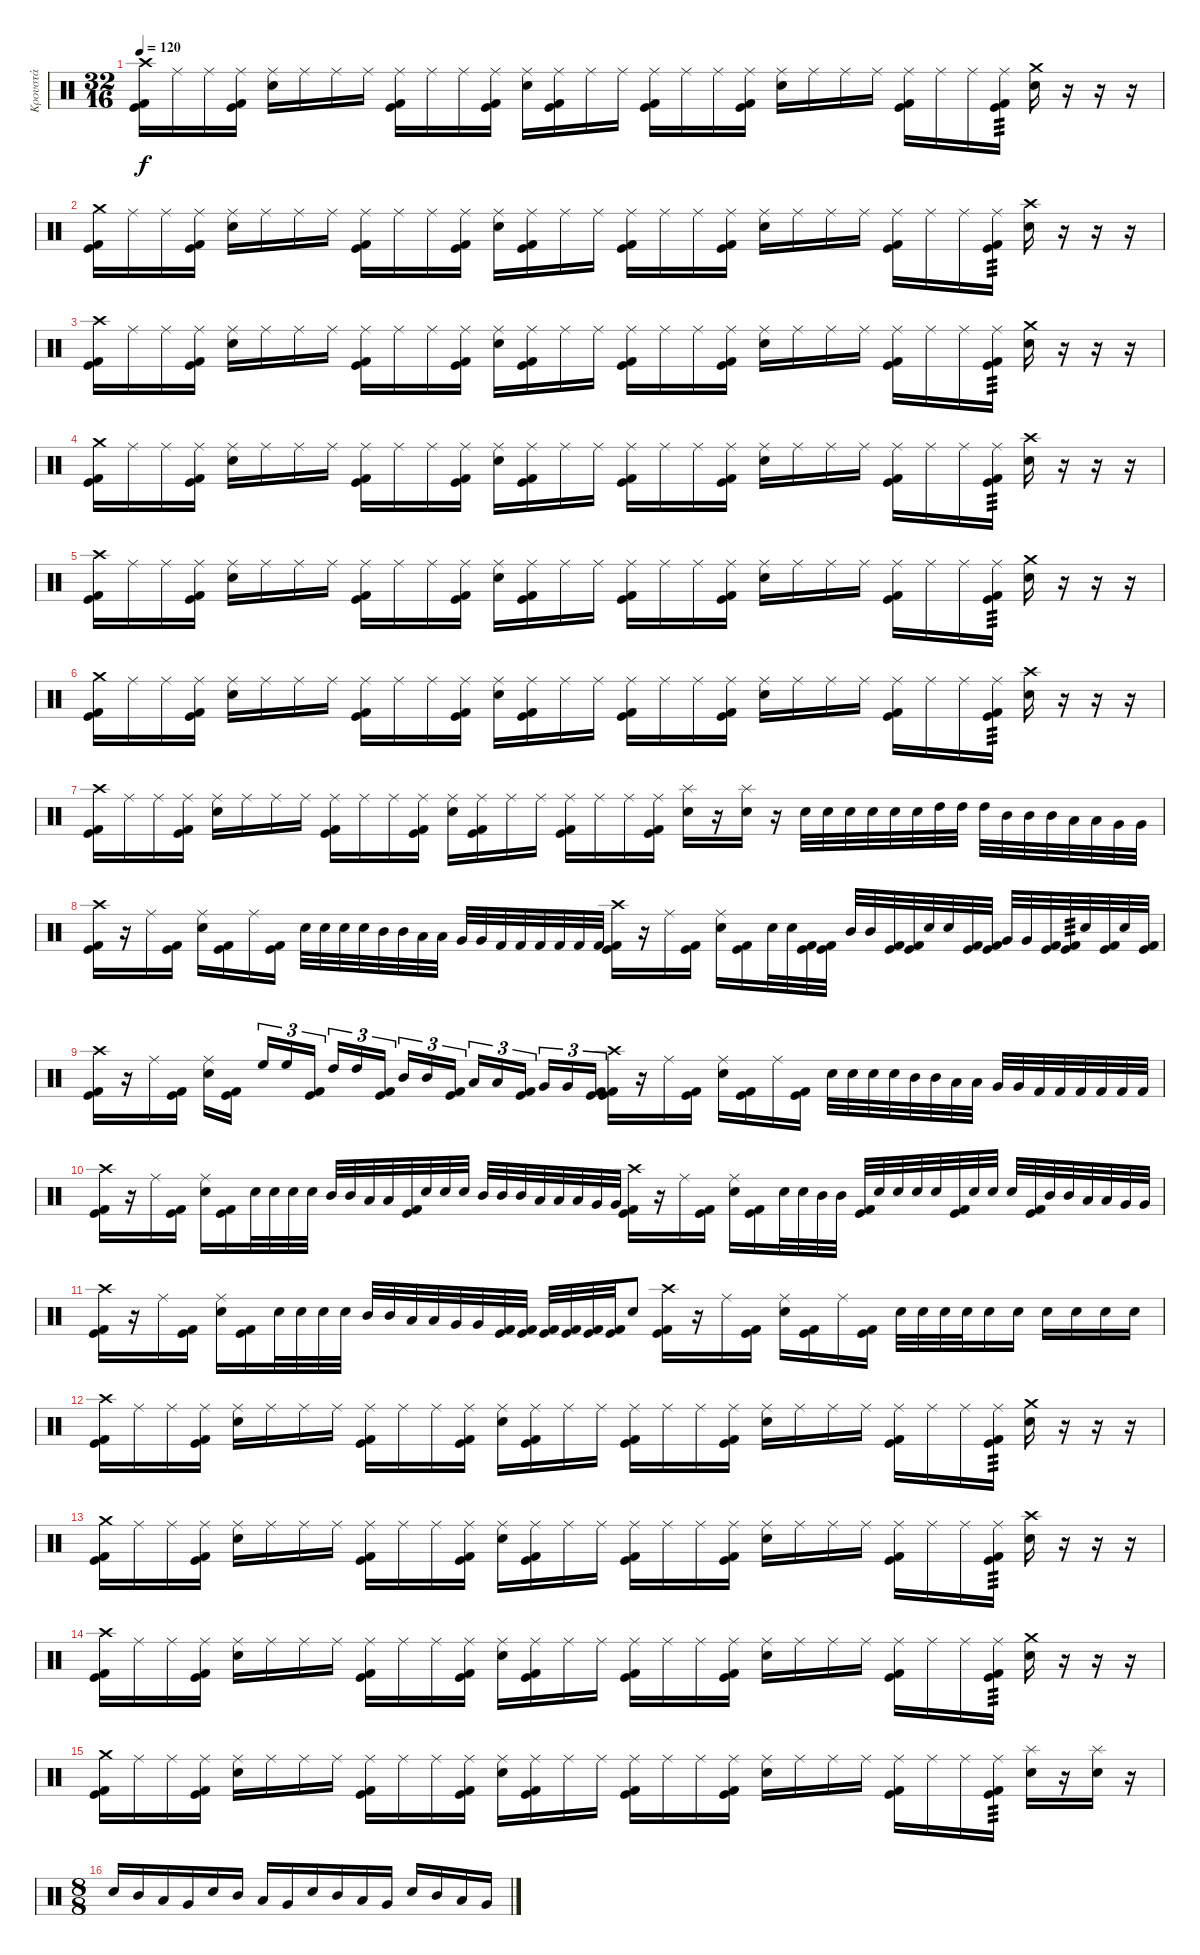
\track ("Κρουστά" "Κρουστά") {instrument percussion}
\staff {score}
\articulation defaults
\ts (32 16)
\tempo 120
\clef neutral
\ks c
("Crash high (hit)" "Kick (hit)" "Kick (hit) 2").16{dy f} "Ride (middle)".16 "Ride (middle)".16 ("Ride (middle)" "Kick (hit)" "Kick (hit) 2").16 ("Ride (middle)" "Snare (hit) 2").16 "Ride (middle)".16 "Ride (middle)".16 "Ride (middle)".16 ("Ride (middle)" "Kick (hit)" "Kick (hit) 2").16 "Ride (middle)".16 "Ride (middle)".16 ("Ride (middle)" "Kick (hit)" "Kick (hit) 2").16 ("Ride (middle)" "Snare (hit) 2").16 ("Ride (middle)" "Kick (hit)" "Kick (hit) 2").16 "Ride (middle)".16 "Ride (middle)".16 ("Ride (middle)" "Kick (hit)" "Kick (hit) 2").16 "Ride (middle)".16 "Ride (middle)".16 ("Ride (middle)" "Kick (hit)" "Kick (hit) 2").16 ("Ride (middle)" "Snare (hit) 2").16 "Ride (middle)".16 "Ride (middle)".16 "Ride (middle)".16 ("Ride (middle)" "Kick (hit)" "Kick (hit) 2").16 "Ride (middle)".16 "Ride (middle)".16 ("Ride (middle)" "Kick (hit)" "Kick (hit) 2").16{tp 3} ("Crash medium (hit)" "Snare (hit) 2").16 r.16 r.16 r.16 |
("Crash medium (hit)" "Kick (hit)" "Kick (hit) 2").16 "Ride (middle)".16 "Ride (middle)".16 ("Ride (middle)" "Kick (hit)" "Kick (hit) 2").16 ("Ride (middle)" "Snare (hit) 2").16 "Ride (middle)".16 "Ride (middle)".16 "Ride (middle)".16 ("Ride (middle)" "Kick (hit)" "Kick (hit) 2").16 "Ride (middle)".16 "Ride (middle)".16 ("Ride (middle)" "Kick (hit)" "Kick (hit) 2").16 ("Ride (middle)" "Snare (hit) 2").16 ("Ride (middle)" "Kick (hit)" "Kick (hit) 2").16 "Ride (middle)".16 "Ride (middle)".16 ("Ride (middle)" "Kick (hit)" "Kick (hit) 2").16 "Ride (middle)".16 "Ride (middle)".16 ("Ride (middle)" "Kick (hit)" "Kick (hit) 2").16 ("Ride (middle)" "Snare (hit) 2").16 "Ride (middle)".16 "Ride (middle)".16 "Ride (middle)".16 ("Ride (middle)" "Kick (hit)" "Kick (hit) 2").16 "Ride (middle)".16 "Ride (middle)".16 ("Ride (middle)" "Kick (hit)" "Kick (hit) 2").16{tp 3} ("Crash high (hit)" "Snare (hit) 2").16 r.16 r.16 r.16 |
("Crash high (hit)" "Kick (hit)" "Kick (hit) 2").16 "Ride (middle)".16 "Ride (middle)".16 ("Ride (middle)" "Kick (hit)" "Kick (hit) 2").16 ("Ride (middle)" "Snare (hit) 2").16 "Ride (middle)".16 "Ride (middle)".16 "Ride (middle)".16 ("Ride (middle)" "Kick (hit)" "Kick (hit) 2").16 "Ride (middle)".16 "Ride (middle)".16 ("Ride (middle)" "Kick (hit)" "Kick (hit) 2").16 ("Ride (middle)" "Snare (hit) 2").16 ("Ride (middle)" "Kick (hit)" "Kick (hit) 2").16 "Ride (middle)".16 "Ride (middle)".16 ("Ride (middle)" "Kick (hit)" "Kick (hit) 2").16 "Ride (middle)".16 "Ride (middle)".16 ("Ride (middle)" "Kick (hit)" "Kick (hit) 2").16 ("Ride (middle)" "Snare (hit) 2").16 "Ride (middle)".16 "Ride (middle)".16 "Ride (middle)".16 ("Ride (middle)" "Kick (hit)" "Kick (hit) 2").16 "Ride (middle)".16 "Ride (middle)".16 ("Ride (middle)" "Kick (hit)" "Kick (hit) 2").16{tp 3} ("Crash medium (hit)" "Snare (hit) 2").16 r.16 r.16 r.16 |
("Crash medium (hit)" "Kick (hit)" "Kick (hit) 2").16 "Ride (middle)".16 "Ride (middle)".16 ("Ride (middle)" "Kick (hit)" "Kick (hit) 2").16 ("Ride (middle)" "Snare (hit) 2").16 "Ride (middle)".16 "Ride (middle)".16 "Ride (middle)".16 ("Ride (middle)" "Kick (hit)" "Kick (hit) 2").16 "Ride (middle)".16 "Ride (middle)".16 ("Ride (middle)" "Kick (hit)" "Kick (hit) 2").16 ("Ride (middle)" "Snare (hit) 2").16 ("Ride (middle)" "Kick (hit)" "Kick (hit) 2").16 "Ride (middle)".16 "Ride (middle)".16 ("Ride (middle)" "Kick (hit)" "Kick (hit) 2").16 "Ride (middle)".16 "Ride (middle)".16 ("Ride (middle)" "Kick (hit)" "Kick (hit) 2").16 ("Ride (middle)" "Snare (hit) 2").16 "Ride (middle)".16 "Ride (middle)".16 "Ride (middle)".16 ("Ride (middle)" "Kick (hit)" "Kick (hit) 2").16 "Ride (middle)".16 "Ride (middle)".16 ("Ride (middle)" "Kick (hit)" "Kick (hit) 2").16{tp 3} ("Crash high (hit)" "Snare (hit) 2").16 r.16 r.16 r.16 |
("Crash high (hit)" "Kick (hit)" "Kick (hit) 2").16 "Ride (middle)".16 "Ride (middle)".16 ("Ride (middle)" "Kick (hit)" "Kick (hit) 2").16 ("Ride (middle)" "Snare (hit) 2").16 "Ride (middle)".16 "Ride (middle)".16 "Ride (middle)".16 ("Ride (middle)" "Kick (hit)" "Kick (hit) 2").16 "Ride (middle)".16 "Ride (middle)".16 ("Ride (middle)" "Kick (hit)" "Kick (hit) 2").16 ("Ride (middle)" "Snare (hit) 2").16 ("Ride (middle)" "Kick (hit)" "Kick (hit) 2").16 "Ride (middle)".16 "Ride (middle)".16 ("Ride (middle)" "Kick (hit)" "Kick (hit) 2").16 "Ride (middle)".16 "Ride (middle)".16 ("Ride (middle)" "Kick (hit)" "Kick (hit) 2").16 ("Ride (middle)" "Snare (hit) 2").16 "Ride (middle)".16 "Ride (middle)".16 "Ride (middle)".16 ("Ride (middle)" "Kick (hit)" "Kick (hit) 2").16 "Ride (middle)".16 "Ride (middle)".16 ("Ride (middle)" "Kick (hit)" "Kick (hit) 2").16{tp 3} ("Crash medium (hit)" "Snare (hit) 2").16 r.16 r.16 r.16 |
("Crash medium (hit)" "Kick (hit)" "Kick (hit) 2").16 "Ride (middle)".16 "Ride (middle)".16 ("Ride (middle)" "Kick (hit)" "Kick (hit) 2").16 ("Ride (middle)" "Snare (hit) 2").16 "Ride (middle)".16 "Ride (middle)".16 "Ride (middle)".16 ("Ride (middle)" "Kick (hit)" "Kick (hit) 2").16 "Ride (middle)".16 "Ride (middle)".16 ("Ride (middle)" "Kick (hit)" "Kick (hit) 2").16 ("Ride (middle)" "Snare (hit) 2").16 ("Ride (middle)" "Kick (hit)" "Kick (hit) 2").16 "Ride (middle)".16 "Ride (middle)".16 ("Ride (middle)" "Kick (hit)" "Kick (hit) 2").16 "Ride (middle)".16 "Ride (middle)".16 ("Ride (middle)" "Kick (hit)" "Kick (hit) 2").16 ("Ride (middle)" "Snare (hit) 2").16 "Ride (middle)".16 "Ride (middle)".16 "Ride (middle)".16 ("Ride (middle)" "Kick (hit)" "Kick (hit) 2").16 "Ride (middle)".16 "Ride (middle)".16 ("Ride (middle)" "Kick (hit)" "Kick (hit) 2").16{tp 3} ("Crash high (hit)" "Snare (hit) 2").16 r.16 r.16 r.16 |
("Crash high (hit)" "Kick (hit)" "Kick (hit) 2").16 "Ride (middle)".16 "Ride (middle)".16 ("Ride (middle)" "Kick (hit)" "Kick (hit) 2").16 ("Ride (middle)" "Snare (hit) 2").16 "Ride (middle)".16 "Ride (middle)".16 "Ride (middle)".16 ("Ride (middle)" "Kick (hit)" "Kick (hit) 2").16 "Ride (middle)".16 "Ride (middle)".16 ("Ride (middle)" "Kick (hit)" "Kick (hit) 2").16 ("Ride (middle)" "Snare (hit) 2").16 ("Ride (middle)" "Kick (hit)" "Kick (hit) 2").16 "Ride (middle)".16 "Ride (middle)".16 ("Ride (middle)" "Kick (hit)" "Kick (hit) 2").16 "Ride (middle)".16 "Ride (middle)".16 ("Ride (middle)" "Kick (hit)" "Kick (hit) 2").16 ("Splash (hit)" "Snare (hit) 2").16 r.16 ("Splash (hit)" "Snare (hit) 2").16 r.16 "Snare (hit) 2".32 "Snare (hit) 2".32 "Snare (hit) 2".32 "Snare (hit) 2".32 "Snare (hit) 2".32 "Snare (hit) 2".32 "High Tom (hit)".32 "High Tom (hit)".32 "High Tom (hit)".32 "Mid Tom (hit)".32 "Mid Tom (hit)".32 "Mid Tom (hit)".32 "Low Tom (hit)".32 "Low Tom (hit)".32 "Very Low Tom (hit)".32 "Very Low Tom (hit)".32 |
("Crash high (hit)" "Kick (hit)" "Kick (hit) 2").16 r.16 "Ride (middle)".16 ("Kick (hit)" "Kick (hit) 2").16 ("Ride (middle)" "Snare (hit) 2").16 ("Kick (hit)" "Kick (hit) 2").16 "Ride (middle)".16 ("Kick (hit)" "Kick (hit) 2").16 "Snare (hit) 2".32 "Snare (hit) 2".32 "Snare (hit) 2".32 "Snare (hit) 2".32 "Mid Tom (hit)".32 "Mid Tom (hit)".32 "Low Tom (hit)".32 "Low Tom (hit)".32 "Very Low Tom (hit)".32 "Very Low Tom (hit)".32 "Kick (hit) 2".32 "Kick (hit) 2".32 "Kick (hit) 2".32 "Kick (hit) 2".32 "Kick (hit) 2".32 "Kick (hit) 2".32 ("Crash high (hit)" "Kick (hit)" "Kick (hit) 2").16 r.16 "Ride (middle)".16 ("Kick (hit)" "Kick (hit) 2").16 ("Ride (middle)" "Snare (hit) 2").16 ("Kick (hit)" "Kick (hit) 2").16 "Snare (hit) 2".32 "Snare (hit) 2".32 ("Kick (hit)" "Kick (hit) 2").32 ("Kick (hit)" "Kick (hit) 2").32 "Mid Tom (hit)".32 "Mid Tom (hit)".32 ("Kick (hit)" "Kick (hit) 2").32 ("Kick (hit)" "Kick (hit) 2").32 "Snare (hit) 2".32 "Snare (hit) 2".32 ("Kick (hit)" "Kick (hit) 2").32 ("Kick (hit)" "Kick (hit) 2").32 "Very Low Tom (hit)".32 "Very Low Tom (hit)".32 ("Kick (hit)" "Kick (hit) 2").32 ("Kick (hit)" "Kick (hit) 2").32{tp 3} "Snare (hit) 2".32 ("Kick (hit)" "Kick (hit) 2").32 "Snare (hit) 2".32 ("Kick (hit)" "Kick (hit) 2").32 |
("Crash high (hit)" "Kick (hit)" "Kick (hit) 2").16 r.16 "Ride (middle)".16 ("Kick (hit)" "Kick (hit) 2").16 ("Ride (middle)" "Snare (hit) 2").16 ("Kick (hit)" "Kick (hit) 2").16 "High Floor Tom (hit)".16{tu (3 2)} "High Floor Tom (hit)".16{tu (3 2)} ("Kick (hit)" "Kick (hit) 2").16{tu (3 2)} "High Tom (hit)".16{tu (3 2)} "High Tom (hit)".16{tu (3 2)} ("Kick (hit)" "Kick (hit) 2").16{tu (3 2)} "Mid Tom (hit)".16{tu (3 2)} "Mid Tom (hit)".16{tu (3 2)} ("Kick (hit)" "Kick (hit) 2").16{tu (3 2)} "Low Tom (hit)".16{tu (3 2)} "Low Tom (hit)".16{tu (3 2)} ("Kick (hit)" "Kick (hit) 2").16{tu (3 2)} "Very Low Tom (hit)".16{tu (3 2)} "Very Low Tom (hit)".16{tu (3 2)} ("Kick (hit)" "Kick (hit) 2").16{tu (3 2)} ("Crash high (hit)" "Kick (hit)" "Kick (hit) 2").16 r.16 "Ride (middle)".16 ("Kick (hit)" "Kick (hit) 2").16 ("Ride (middle)" "Snare (hit) 2").16 ("Kick (hit)" "Kick (hit) 2").16 "Ride (middle)".16 ("Kick (hit)" "Kick (hit) 2").16 "Snare (hit) 2".32 "Snare (hit) 2".32 "Snare (hit) 2".32 "Snare (hit) 2".32 "Mid Tom (hit)".32 "Mid Tom (hit)".32 "Low Tom (hit)".32 "Low Tom (hit)".32 "Very Low Tom (hit)".32 "Very Low Tom (hit)".32 "Kick (hit) 2".32 "Kick (hit) 2".32 "Kick (hit) 2".32 "Kick (hit) 2".32 "Kick (hit) 2".32 "Kick (hit) 2".32 |
("Crash high (hit)" "Kick (hit)" "Kick (hit) 2").16 r.16 "Ride (middle)".16 ("Kick (hit)" "Kick (hit) 2").16 ("Ride (middle)" "Snare (hit) 2").16 ("Kick (hit)" "Kick (hit) 2").16 "Snare (hit) 2".32 "Snare (hit) 2".32 "Snare (hit) 2".32 "Snare (hit) 2".32 "Mid Tom (hit)".32 "Mid Tom (hit)".32 "Low Tom (hit)".32 "Low Tom (hit)".32 ("Kick (hit)" "Kick (hit) 2").32 "Snare (hit) 2".32 "Snare (hit) 2".32 "Snare (hit) 2".32 "Mid Tom (hit)".32 "Mid Tom (hit)".32 "Mid Tom (hit)".32 "Low Tom (hit)".32 "Low Tom (hit)".32 "Low Tom (hit)".32 "Very Low Tom (hit)".32 "Very Low Tom (hit)".32 ("Crash high (hit)" "Kick (hit)" "Kick (hit) 2").16 r.16 "Ride (middle)".16 ("Kick (hit)" "Kick (hit) 2").16 ("Ride (middle)" "Snare (hit) 2").16 ("Kick (hit)" "Kick (hit) 2").16 "Snare (hit) 2".32 "Snare (hit) 2".32 "Mid Tom (hit)".32 "Mid Tom (hit)".32 ("Kick (hit)" "Kick (hit) 2").32 "Snare (hit) 2".32 "Snare (hit) 2".32 "Snare (hit) 2".32 "Snare (hit) 2".32 ("Kick (hit)" "Kick (hit) 2").32 "Snare (hit) 2".32 "Snare (hit) 2".32 "Snare (hit) 2".32 ("Kick (hit)" "Kick (hit) 2").32 "Mid Tom (hit)".32 "Mid Tom (hit)".32 "Low Tom (hit)".32 "Low Tom (hit)".32 "Very Low Tom (hit)".32 "Very Low Tom (hit)".32 |
("Crash high (hit)" "Kick (hit)" "Kick (hit) 2").16 r.16 "Ride (middle)".16 ("Kick (hit)" "Kick (hit) 2").16 ("Ride (middle)" "Snare (hit) 2").16 ("Kick (hit)" "Kick (hit) 2").16 "Snare (hit) 2".32 "Snare (hit) 2".32 "Snare (hit) 2".32 "Snare (hit) 2".32 "Mid Tom (hit)".32 "Mid Tom (hit)".32 "Low Tom (hit)".32 "Low Tom (hit)".32 "Very Low Tom (hit)".32 "Very Low Tom (hit)".32 ("Kick (hit)" "Kick (hit) 2").32 ("Kick (hit)" "Kick (hit) 2").32 ("Kick (hit)" "Kick (hit) 2").32 ("Kick (hit)" "Kick (hit) 2").32 ("Kick (hit)" "Kick (hit) 2").32 ("Kick (hit)" "Kick (hit) 2").32 "Snare (hit) 2".8 ("Crash high (hit)" "Kick (hit)" "Kick (hit) 2").16 r.16 "Ride (middle)".16 ("Kick (hit)" "Kick (hit) 2").16 ("Ride (middle)" "Snare (hit) 2").16 ("Kick (hit)" "Kick (hit) 2").16 "Ride (middle)".16 ("Kick (hit)" "Kick (hit) 2").16 "Snare (hit) 2".32 "Snare (hit) 2".32 "Snare (hit) 2".32 "Snare (hit) 2".32 "Snare (hit) 2".16 "Snare (hit) 2".16 "Snare (hit) 2".16 "Snare (hit) 2".16 "Snare (hit) 2".16 "Snare (hit) 2".16 |
("Crash high (hit)" "Kick (hit)" "Kick (hit) 2").16 "Ride (middle)".16 "Ride (middle)".16 ("Ride (middle)" "Kick (hit)" "Kick (hit) 2").16 ("Ride (middle)" "Snare (hit) 2").16 "Ride (middle)".16 "Ride (middle)".16 "Ride (middle)".16 ("Ride (middle)" "Kick (hit)" "Kick (hit) 2").16 "Ride (middle)".16 "Ride (middle)".16 ("Ride (middle)" "Kick (hit)" "Kick (hit) 2").16 ("Ride (middle)" "Snare (hit) 2").16 ("Ride (middle)" "Kick (hit)" "Kick (hit) 2").16 "Ride (middle)".16 "Ride (middle)".16 ("Ride (middle)" "Kick (hit)" "Kick (hit) 2").16 "Ride (middle)".16 "Ride (middle)".16 ("Ride (middle)" "Kick (hit)" "Kick (hit) 2").16 ("Ride (middle)" "Snare (hit) 2").16 "Ride (middle)".16 "Ride (middle)".16 "Ride (middle)".16 ("Ride (middle)" "Kick (hit)" "Kick (hit) 2").16 "Ride (middle)".16 "Ride (middle)".16 ("Ride (middle)" "Kick (hit)" "Kick (hit) 2").16{tp 3} ("Crash medium (hit)" "Snare (hit) 2").16 r.16 r.16 r.16 |
("Crash medium (hit)" "Kick (hit)" "Kick (hit) 2").16 "Ride (middle)".16 "Ride (middle)".16 ("Ride (middle)" "Kick (hit)" "Kick (hit) 2").16 ("Ride (middle)" "Snare (hit) 2").16 "Ride (middle)".16 "Ride (middle)".16 "Ride (middle)".16 ("Ride (middle)" "Kick (hit)" "Kick (hit) 2").16 "Ride (middle)".16 "Ride (middle)".16 ("Ride (middle)" "Kick (hit)" "Kick (hit) 2").16 ("Ride (middle)" "Snare (hit) 2").16 ("Ride (middle)" "Kick (hit)" "Kick (hit) 2").16 "Ride (middle)".16 "Ride (middle)".16 ("Ride (middle)" "Kick (hit)" "Kick (hit) 2").16 "Ride (middle)".16 "Ride (middle)".16 ("Ride (middle)" "Kick (hit)" "Kick (hit) 2").16 ("Ride (middle)" "Snare (hit) 2").16 "Ride (middle)".16 "Ride (middle)".16 "Ride (middle)".16 ("Ride (middle)" "Kick (hit)" "Kick (hit) 2").16 "Ride (middle)".16 "Ride (middle)".16 ("Ride (middle)" "Kick (hit)" "Kick (hit) 2").16{tp 3} ("Crash high (hit)" "Snare (hit) 2").16 r.16 r.16 r.16 |
("Crash high (hit)" "Kick (hit)" "Kick (hit) 2").16 "Ride (middle)".16 "Ride (middle)".16 ("Ride (middle)" "Kick (hit)" "Kick (hit) 2").16 ("Ride (middle)" "Snare (hit) 2").16 "Ride (middle)".16 "Ride (middle)".16 "Ride (middle)".16 ("Ride (middle)" "Kick (hit)" "Kick (hit) 2").16 "Ride (middle)".16 "Ride (middle)".16 ("Ride (middle)" "Kick (hit)" "Kick (hit) 2").16 ("Ride (middle)" "Snare (hit) 2").16 ("Ride (middle)" "Kick (hit)" "Kick (hit) 2").16 "Ride (middle)".16 "Ride (middle)".16 ("Ride (middle)" "Kick (hit)" "Kick (hit) 2").16 "Ride (middle)".16 "Ride (middle)".16 ("Ride (middle)" "Kick (hit)" "Kick (hit) 2").16 ("Ride (middle)" "Snare (hit) 2").16 "Ride (middle)".16 "Ride (middle)".16 "Ride (middle)".16 ("Ride (middle)" "Kick (hit)" "Kick (hit) 2").16 "Ride (middle)".16 "Ride (middle)".16 ("Ride (middle)" "Kick (hit)" "Kick (hit) 2").16{tp 3} ("Crash medium (hit)" "Snare (hit) 2").16 r.16 r.16 r.16 |
("Crash medium (hit)" "Kick (hit)" "Kick (hit) 2").16 "Ride (middle)".16 "Ride (middle)".16 ("Ride (middle)" "Kick (hit)" "Kick (hit) 2").16 ("Ride (middle)" "Snare (hit) 2").16 "Ride (middle)".16 "Ride (middle)".16 "Ride (middle)".16 ("Ride (middle)" "Kick (hit)" "Kick (hit) 2").16 "Ride (middle)".16 "Ride (middle)".16 ("Ride (middle)" "Kick (hit)" "Kick (hit) 2").16 ("Ride (middle)" "Snare (hit) 2").16 ("Ride (middle)" "Kick (hit)" "Kick (hit) 2").16 "Ride (middle)".16 "Ride (middle)".16 ("Ride (middle)" "Kick (hit)" "Kick (hit) 2").16 "Ride (middle)".16 "Ride (middle)".16 ("Ride (middle)" "Kick (hit)" "Kick (hit) 2").16 ("Ride (middle)" "Snare (hit) 2").16 "Ride (middle)".16 "Ride (middle)".16 "Ride (middle)".16 ("Ride (middle)" "Kick (hit)" "Kick (hit) 2").16 "Ride (middle)".16 "Ride (middle)".16 ("Ride (middle)" "Kick (hit)" "Kick (hit) 2").16{tp 3} ("Splash (hit)" "Snare (hit) 2").16 r.16 ("Splash (hit)" "Snare (hit) 2").16 r.16 |
\ts (8 8)
"Snare (hit) 2".16 "Mid Tom (hit)".16 "Low Tom (hit)".16 "Very Low Tom (hit)".16 "Snare (hit) 2".16 "Mid Tom (hit)".16 "Low Tom (hit)".16 "Very Low Tom (hit)".16 "Snare (hit) 2".16 "Mid Tom (hit)".16 "Low Tom (hit)".16 "Very Low Tom (hit)".16 "Snare (hit) 2".16 "Mid Tom (hit)".16 "Low Tom (hit)".16 "Very Low Tom (hit)".16
